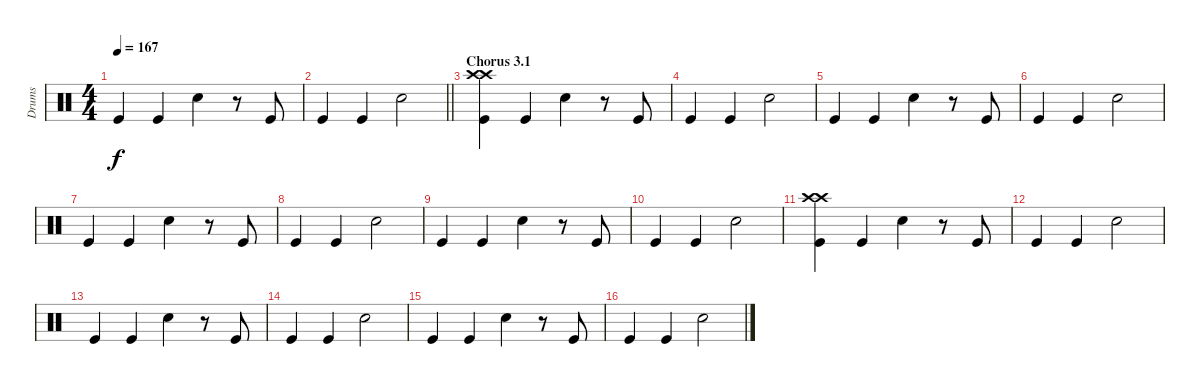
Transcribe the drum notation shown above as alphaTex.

\track ("Drums" "Drums") {instrument percussion}
\staff {score}
\articulation defaults
\ts (4 4)
\tempo 167
\clef neutral
\ks c "Kick (hit)".4{dy f} "Kick (hit)".4 "Electric Snare (hit)".4
r.8 "Kick (hit)".8 |
\barLineRight lightlight "Kick (hit)".4 "Kick (hit)".4 "Electric Snare (hit)".2
|
\section ("" "Chorus 3.1")
("Crash high (hit)" "Kick (hit)" "Crash high (hit)").4 "Kick (hit)".4 "Electric Snare (hit)".4 r.8 "Kick (hit)".8 |
"Kick (hit)".4 "Kick (hit)".4 "Electric Snare (hit)".2 |
"Kick (hit)".4 "Kick (hit)".4 "Electric Snare (hit)".4 r.8 "Kick (hit)".8 |
"Kick (hit)".4 "Kick (hit)".4 "Electric Snare (hit)".2 |
"Kick (hit)".4 "Kick (hit)".4 "Electric Snare (hit)".4 r.8 "Kick (hit)".8 |
"Kick (hit)".4 "Kick (hit)".4 "Electric Snare (hit)".2 |
"Kick (hit)".4 "Kick (hit)".4 "Electric Snare (hit)".4 r.8 "Kick (hit)".8 |
"Kick (hit)".4 "Kick (hit)".4 "Electric Snare (hit)".2 |
("Crash high (hit)" "Kick (hit)" "Crash high (hit)").4 "Kick (hit)".4 "Electric Snare (hit)".4 r.8 "Kick (hit)".8 |
"Kick (hit)".4 "Kick (hit)".4 "Electric Snare (hit)".2 |
"Kick (hit)".4 "Kick (hit)".4 "Electric Snare (hit)".4 r.8 "Kick (hit)".8 |
"Kick (hit)".4 "Kick (hit)".4 "Electric Snare (hit)".2 |
"Kick (hit)".4 "Kick (hit)".4 "Electric Snare (hit)".4 r.8 "Kick (hit)".8 |
"Kick (hit)".4 "Kick (hit)".4 "Electric Snare (hit)".2
